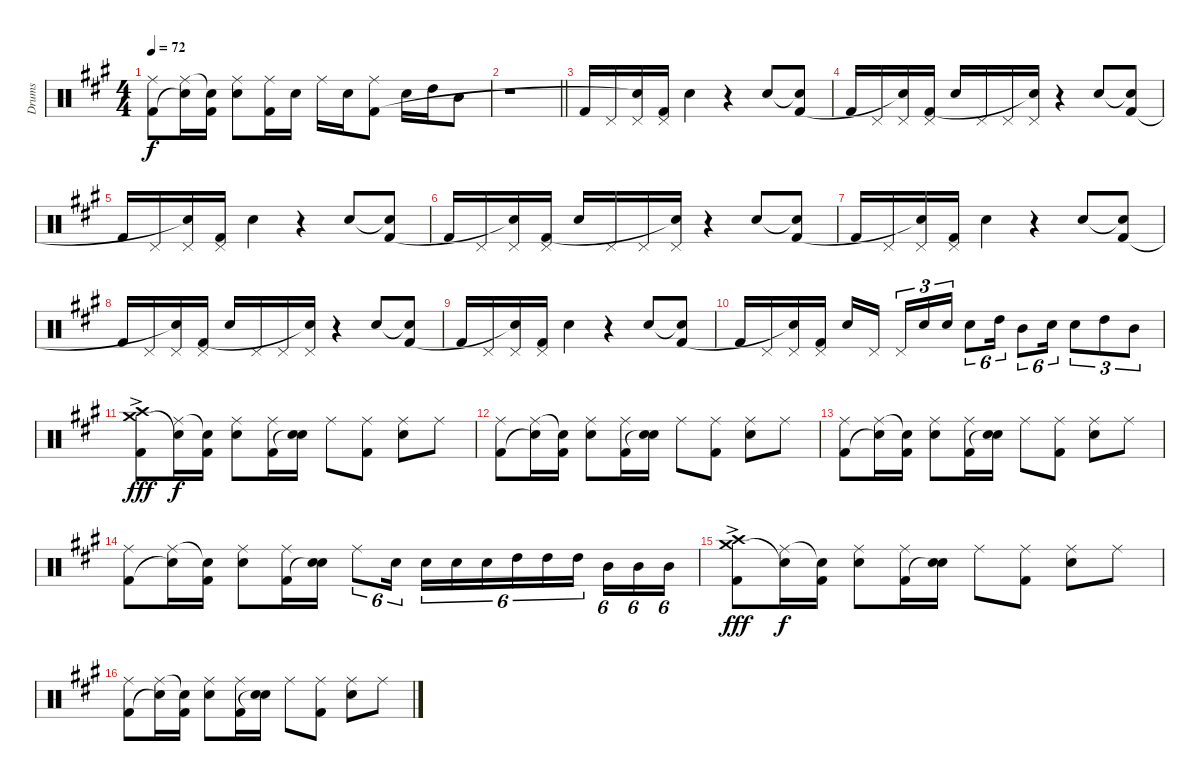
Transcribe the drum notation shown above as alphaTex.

\track ("Drums" "Drums") {instrument percussion}
\staff {score}
\articulation defaults
\ts (4 4)
\tempo 72
\clef neutral
\ks a
("Ride (middle)" "Kick (hit) 2").8{dy f} ("Ride (middle)" "Snare (hit)"{t}).16 ("Snare (hit)"{t} "Kick (hit) 2").16 ("Ride (middle)" "Snare (hit) 2").8 ("Ride (middle)" "Kick (hit) 2").16 "Snare (hit) 2".16 "Ride (middle)".16 "Snare (hit) 2".16 ("Ride (middle)" "Kick (hit) 2").8 "Snare (hit) 2".16 "High Tom (hit)".16 "Mid Tom (hit)".8 |
\barLineRight lightlight
r.1 |
"Kick (hit) 2".16 "Pedal Hi-Hat (hit)".16 ("Pedal Hi-Hat (hit)" "Snare (hit)"{t}).16 ("Pedal Hi-Hat (hit)" "Kick (hit) 2").16 "Snare (hit) 2".4 r.4 "Snare (hit) 2".8 ("Snare (hit)"{t} "Kick (hit) 2").8 |
"Kick (hit) 2".16 "Pedal Hi-Hat (hit)".16 ("Pedal Hi-Hat (hit)" "Snare (hit)"{t}).16 ("Pedal Hi-Hat (hit)" "Kick (hit) 2").16 "Snare (hit) 2".16 "Pedal Hi-Hat (hit)".16 "Pedal Hi-Hat (hit)".16 ("Pedal Hi-Hat (hit)" "Snare (hit)"{t}).16 r.4 "Snare (hit) 2".8 ("Snare (hit)"{t} "Kick (hit) 2").8 |
"Kick (hit) 2".16 "Pedal Hi-Hat (hit)".16 ("Pedal Hi-Hat (hit)" "Snare (hit)"{t}).16 ("Pedal Hi-Hat (hit)" "Kick (hit) 2").16 "Snare (hit) 2".4 r.4 "Snare (hit) 2".8 ("Snare (hit)"{t} "Kick (hit) 2").8 |
"Kick (hit) 2".16 "Pedal Hi-Hat (hit)".16 ("Pedal Hi-Hat (hit)" "Snare (hit)"{t}).16 ("Pedal Hi-Hat (hit)" "Kick (hit) 2").16 "Snare (hit) 2".16 "Pedal Hi-Hat (hit)".16 "Pedal Hi-Hat (hit)".16 ("Pedal Hi-Hat (hit)" "Snare (hit)"{t}).16 r.4 "Snare (hit) 2".8 ("Snare (hit)"{t} "Kick (hit) 2").8 |
"Kick (hit) 2".16 "Pedal Hi-Hat (hit)".16 ("Pedal Hi-Hat (hit)" "Snare (hit)"{t}).16 ("Pedal Hi-Hat (hit)" "Kick (hit) 2").16 "Snare (hit) 2".4 r.4 "Snare (hit) 2".8 ("Snare (hit)"{t} "Kick (hit) 2").8 |
"Kick (hit) 2".16 "Pedal Hi-Hat (hit)".16 ("Pedal Hi-Hat (hit)" "Snare (hit)"{t}).16 ("Pedal Hi-Hat (hit)" "Kick (hit) 2").16 "Snare (hit) 2".16 "Pedal Hi-Hat (hit)".16 "Pedal Hi-Hat (hit)".16 ("Pedal Hi-Hat (hit)" "Snare (hit)"{t}).16 r.4 "Snare (hit) 2".8 ("Snare (hit)"{t} "Kick (hit) 2").8 |
"Kick (hit) 2".16 "Pedal Hi-Hat (hit)".16 ("Pedal Hi-Hat (hit)" "Snare (hit)"{t}).16 ("Pedal Hi-Hat (hit)" "Kick (hit) 2").16 "Snare (hit) 2".4 r.4 "Snare (hit) 2".8 ("Snare (hit)"{t} "Kick (hit) 2").8 |
"Kick (hit) 2".16 "Pedal Hi-Hat (hit)".16 ("Pedal Hi-Hat (hit)" "Snare (hit)"{t}).16 ("Pedal Hi-Hat (hit)" "Kick (hit) 2").16 "Snare (hit) 2".16 "Pedal Hi-Hat (hit)".16 "Pedal Hi-Hat (hit)".16{tu (3 2)} "Snare (hit) 2".16{tu (3 2)} "Snare (hit) 2".16{tu (3 2)} "Snare (hit) 2".8{tu (6 4)} "High Tom (hit)".16{tu (6 4)} "Mid Tom (hit)".8{tu (6 4)} "Snare (hit) 2".16{tu (6 4)} "Snare (hit) 2".8{tu (3 2)} "High Tom (hit)".8{tu (3 2)} "Mid Tom (hit)".8{tu (3 2)} |
("Crash high (hit)"{ac} "Crash medium (hit)"{ac} "Kick (hit) 2"{ac}).8{dy fff} ("Ride (middle)" "Snare (hit)"{t}).16{dy f} ("Snare (hit)"{t} "Kick (hit) 2").16 ("Ride (middle)" "Snare (hit) 2").8 ("Ride (middle)" "Kick (hit) 2").16 ("Snare (hit) 2" "Snare (hit)"{t}).16 "Ride (middle)".8 ("Ride (middle)" "Kick (hit) 2").8 ("Ride (middle)" "Snare (hit) 2").8 "Ride (middle)".8 |
("Ride (middle)" "Kick (hit) 2").8 ("Ride (middle)" "Snare (hit)"{t}).16 ("Snare (hit)"{t} "Kick (hit) 2").16 ("Ride (middle)" "Snare (hit) 2").8 ("Ride (middle)" "Kick (hit) 2").16 ("Snare (hit) 2" "Snare (hit)"{t}).16 "Ride (middle)".8 ("Ride (middle)" "Kick (hit) 2").8 ("Ride (middle)" "Snare (hit) 2").8 "Ride (middle)".8 |
("Ride (middle)" "Kick (hit) 2").8 ("Ride (middle)" "Snare (hit)"{t}).16 ("Snare (hit)"{t} "Kick (hit) 2").16 ("Ride (middle)" "Snare (hit) 2").8 ("Ride (middle)" "Kick (hit) 2").16 ("Snare (hit) 2" "Snare (hit)"{t}).16 "Ride (middle)".8 ("Ride (middle)" "Kick (hit) 2").8 ("Ride (middle)" "Snare (hit) 2").8 "Ride (middle)".8 |
("Ride (middle)" "Kick (hit) 2").8 ("Ride (middle)" "Snare (hit)"{t}).16 ("Snare (hit)"{t} "Kick (hit) 2").16 ("Ride (middle)" "Snare (hit) 2").8 ("Ride (middle)" "Kick (hit) 2").16 ("Snare (hit) 2" "Snare (hit)"{t}).16 "Ride (middle)".8{tu (6 4)} "Snare (hit) 2".16{tu (6 4)} "Snare (hit) 2".16{tu (6 4)} "Snare (hit) 2".16{tu (6 4)} "Snare (hit) 2".16{tu (6 4)} "High Tom (hit)".16{tu (6 4)} "High Tom (hit)".16{tu (6 4)} "High Tom (hit)".16{tu (6 4)} "Mid Tom (hit)".16{tu (6 4)} "Mid Tom (hit)".16{tu (6 4)} "Mid Tom (hit)".16{tu (6 4)} |
("Crash high (hit)"{ac} "Crash medium (hit)"{ac} "Kick (hit) 2"{ac}).8{dy fff} ("Ride (middle)" "Snare (hit)"{t}).16{dy f} ("Snare (hit)"{t} "Kick (hit) 2").16 ("Ride (middle)" "Snare (hit) 2").8 ("Ride (middle)" "Kick (hit) 2").16 ("Snare (hit) 2" "Snare (hit)"{t}).16 "Ride (middle)".8 ("Ride (middle)" "Kick (hit) 2").8 ("Ride (middle)" "Snare (hit) 2").8 "Ride (middle)".8 |
("Ride (middle)" "Kick (hit) 2").8 ("Ride (middle)" "Snare (hit)"{t}).16 ("Snare (hit)"{t} "Kick (hit) 2").16 ("Ride (middle)" "Snare (hit) 2").8 ("Ride (middle)" "Kick (hit) 2").16 ("Snare (hit) 2" "Snare (hit)"{t}).16 "Ride (middle)".8 ("Ride (middle)" "Kick (hit) 2").8 ("Ride (middle)" "Snare (hit) 2").8 "Ride (middle)".8
